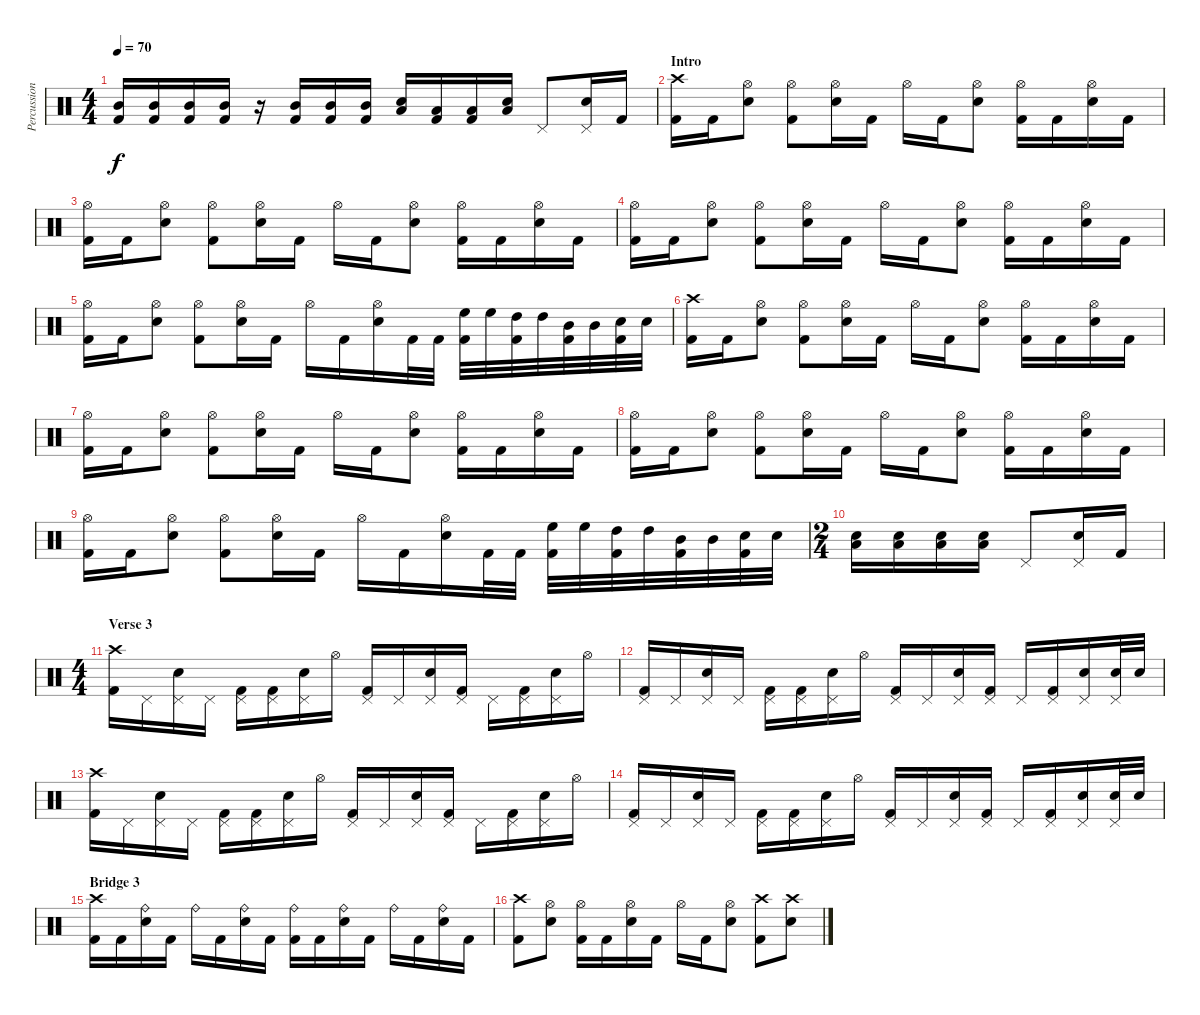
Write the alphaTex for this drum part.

\track ("Percussion" "Percussion") {instrument percussion}
\staff {score}
\articulation defaults
\ts (4 4)
\tempo 70
\clef neutral
\ks c
("Kick (hit) 2" "Mid Tom (hit)").16{dy f} ("Kick (hit) 2" "Mid Tom (hit)").16 ("Kick (hit) 2" "Mid Tom (hit)").16 ("Kick (hit) 2" "Mid Tom (hit)").16 r.16 ("Kick (hit) 2" "Mid Tom (hit)").16 ("Kick (hit) 2" "Mid Tom (hit)").16 ("Kick (hit) 2" "Mid Tom (hit)").16 ("Electric Snare (hit)" "Low Tom (hit)").16 ("Kick (hit) 2" "Low Tom (hit)").16 ("Kick (hit) 2" "Low Tom (hit)").16 ("Electric Snare (hit)" "Low Tom (hit)").16 "Pedal Hi-Hat (hit)".8 ("Electric Snare (hit)" "Pedal Hi-Hat (hit)").16 "Kick (hit) 2".16 |
\section ("" "Intro")
("Kick (hit) 2" "Crash high (hit)").16 "Kick (hit) 2".16 ("Electric Snare (hit)" "Hi-Hat (open)").8 ("Kick (hit) 2" "Hi-Hat (open)").8 ("Electric Snare (hit)" "Hi-Hat (open)").16 "Kick (hit) 2".16 "Hi-Hat (open)".16 "Kick (hit) 2".16 ("Electric Snare (hit)" "Hi-Hat (open)").8 ("Kick (hit) 2" "Hi-Hat (open)").16 "Kick (hit) 2".16 ("Electric Snare (hit)" "Hi-Hat (open)").16 "Kick (hit) 2".16 |
("Kick (hit) 2" "Hi-Hat (open)").16 "Kick (hit) 2".16 ("Electric Snare (hit)" "Hi-Hat (open)").8 ("Kick (hit) 2" "Hi-Hat (open)").8 ("Electric Snare (hit)" "Hi-Hat (open)").16 "Kick (hit) 2".16 "Hi-Hat (open)".16 "Kick (hit) 2".16 ("Electric Snare (hit)" "Hi-Hat (open)").8 ("Kick (hit) 2" "Hi-Hat (open)").16 "Kick (hit) 2".16 ("Electric Snare (hit)" "Hi-Hat (open)").16 "Kick (hit) 2".16 |
("Kick (hit) 2" "Hi-Hat (open)").16 "Kick (hit) 2".16 ("Electric Snare (hit)" "Hi-Hat (open)").8 ("Kick (hit) 2" "Hi-Hat (open)").8 ("Electric Snare (hit)" "Hi-Hat (open)").16 "Kick (hit) 2".16 "Hi-Hat (open)".16 "Kick (hit) 2".16 ("Electric Snare (hit)" "Hi-Hat (open)").8 ("Kick (hit) 2" "Hi-Hat (open)").16 "Kick (hit) 2".16 ("Electric Snare (hit)" "Hi-Hat (open)").16 "Kick (hit) 2".16 |
("Kick (hit) 2" "Hi-Hat (open)").16 "Kick (hit) 2".16 ("Electric Snare (hit)" "Hi-Hat (open)").8 ("Kick (hit) 2" "Hi-Hat (open)").8 ("Electric Snare (hit)" "Hi-Hat (open)").16 "Kick (hit) 2".16 "Hi-Hat (open)".16 "Kick (hit) 2".16 ("Electric Snare (hit)" "Hi-Hat (open)").16 "Kick (hit) 2".32 "Kick (hit) 2".32 ("High Floor Tom (hit)" "Kick (hit) 2").32 "High Floor Tom (hit)".32 ("High Tom (hit)" "Kick (hit) 2").32 "High Tom (hit)".32 ("Mid Tom (hit)" "Kick (hit) 2").32 "Mid Tom (hit)".32 ("Electric Snare (hit)" "Kick (hit) 2").32 "Electric Snare (hit)".32 |
("Kick (hit) 2" "Crash high (hit)").16 "Kick (hit) 2".16 ("Electric Snare (hit)" "Hi-Hat (open)").8 ("Kick (hit) 2" "Hi-Hat (open)").8 ("Electric Snare (hit)" "Hi-Hat (open)").16 "Kick (hit) 2".16 "Hi-Hat (open)".16 "Kick (hit) 2".16 ("Electric Snare (hit)" "Hi-Hat (open)").8 ("Kick (hit) 2" "Hi-Hat (open)").16 "Kick (hit) 2".16 ("Electric Snare (hit)" "Hi-Hat (open)").16 "Kick (hit) 2".16 |
("Kick (hit) 2" "Hi-Hat (open)").16 "Kick (hit) 2".16 ("Electric Snare (hit)" "Hi-Hat (open)").8 ("Kick (hit) 2" "Hi-Hat (open)").8 ("Electric Snare (hit)" "Hi-Hat (open)").16 "Kick (hit) 2".16 "Hi-Hat (open)".16 "Kick (hit) 2".16 ("Electric Snare (hit)" "Hi-Hat (open)").8 ("Kick (hit) 2" "Hi-Hat (open)").16 "Kick (hit) 2".16 ("Electric Snare (hit)" "Hi-Hat (open)").16 "Kick (hit) 2".16 |
("Kick (hit) 2" "Hi-Hat (open)").16 "Kick (hit) 2".16 ("Electric Snare (hit)" "Hi-Hat (open)").8 ("Kick (hit) 2" "Hi-Hat (open)").8 ("Electric Snare (hit)" "Hi-Hat (open)").16 "Kick (hit) 2".16 "Hi-Hat (open)".16 "Kick (hit) 2".16 ("Electric Snare (hit)" "Hi-Hat (open)").8 ("Kick (hit) 2" "Hi-Hat (open)").16 "Kick (hit) 2".16 ("Electric Snare (hit)" "Hi-Hat (open)").16 "Kick (hit) 2".16 |
("Kick (hit) 2" "Hi-Hat (open)").16 "Kick (hit) 2".16 ("Electric Snare (hit)" "Hi-Hat (open)").8 ("Kick (hit) 2" "Hi-Hat (open)").8 ("Electric Snare (hit)" "Hi-Hat (open)").16 "Kick (hit) 2".16 "Hi-Hat (open)".16 "Kick (hit) 2".16 ("Electric Snare (hit)" "Hi-Hat (open)").16 "Kick (hit) 2".32 "Kick (hit) 2".32 ("High Floor Tom (hit)" "Kick (hit) 2").32 "High Floor Tom (hit)".32 ("High Tom (hit)" "Kick (hit) 2").32 "High Tom (hit)".32 ("Mid Tom (hit)" "Kick (hit) 2").32 "Mid Tom (hit)".32 ("Electric Snare (hit)" "Kick (hit) 2").32 "Electric Snare (hit)".32 |
\ts (2 4)
("Electric Snare (hit)" "Low Tom (hit)").16 ("Electric Snare (hit)" "Low Tom (hit)").16 ("Electric Snare (hit)" "Low Tom (hit)").16 ("Electric Snare (hit)" "Low Tom (hit)").16 "Pedal Hi-Hat (hit)".8 ("Electric Snare (hit)" "Pedal Hi-Hat (hit)").16 "Kick (hit) 2".16 |
\ts (4 4)
\section ("" "Verse 3")
("Kick (hit) 2" "Crash high (hit)").16 "Pedal Hi-Hat (hit)".16 ("Electric Snare (hit)" "Pedal Hi-Hat (hit)").16 "Pedal Hi-Hat (hit)".16 ("Kick (hit) 2" "Pedal Hi-Hat (hit)").16 ("Kick (hit) 2" "Pedal Hi-Hat (hit)").16 ("Electric Snare (hit)" "Pedal Hi-Hat (hit)").16 "Hi-Hat (open)".16 ("Kick (hit) 2" "Pedal Hi-Hat (hit)").16 "Pedal Hi-Hat (hit)".16 ("Electric Snare (hit)" "Pedal Hi-Hat (hit)").16 ("Kick (hit) 2" "Pedal Hi-Hat (hit)").16 "Pedal Hi-Hat (hit)".16 ("Kick (hit) 2" "Pedal Hi-Hat (hit)").16 ("Electric Snare (hit)" "Pedal Hi-Hat (hit)").16 "Hi-Hat (open)".16 |
("Kick (hit) 2" "Pedal Hi-Hat (hit)").16 "Pedal Hi-Hat (hit)".16 ("Electric Snare (hit)" "Pedal Hi-Hat (hit)").16 "Pedal Hi-Hat (hit)".16 ("Kick (hit) 2" "Pedal Hi-Hat (hit)").16 ("Kick (hit) 2" "Pedal Hi-Hat (hit)").16 ("Electric Snare (hit)" "Pedal Hi-Hat (hit)").16 "Hi-Hat (open)".16 ("Kick (hit) 2" "Pedal Hi-Hat (hit)").16 "Pedal Hi-Hat (hit)".16 ("Electric Snare (hit)" "Pedal Hi-Hat (hit)").16 ("Kick (hit) 2" "Pedal Hi-Hat (hit)").16 "Pedal Hi-Hat (hit)".16 ("Kick (hit) 2" "Pedal Hi-Hat (hit)").16 ("Electric Snare (hit)" "Pedal Hi-Hat (hit)").16 ("Electric Snare (hit)" "Pedal Hi-Hat (hit)").32 "Electric Snare (hit)".32 |
("Kick (hit) 2" "Crash high (hit)").16 "Pedal Hi-Hat (hit)".16 ("Electric Snare (hit)" "Pedal Hi-Hat (hit)").16 "Pedal Hi-Hat (hit)".16 ("Kick (hit) 2" "Pedal Hi-Hat (hit)").16 ("Kick (hit) 2" "Pedal Hi-Hat (hit)").16 ("Electric Snare (hit)" "Pedal Hi-Hat (hit)").16 "Hi-Hat (open)".16 ("Kick (hit) 2" "Pedal Hi-Hat (hit)").16 "Pedal Hi-Hat (hit)".16 ("Electric Snare (hit)" "Pedal Hi-Hat (hit)").16 ("Kick (hit) 2" "Pedal Hi-Hat (hit)").16 "Pedal Hi-Hat (hit)".16 ("Kick (hit) 2" "Pedal Hi-Hat (hit)").16 ("Electric Snare (hit)" "Pedal Hi-Hat (hit)").16 "Hi-Hat (open)".16 |
("Kick (hit) 2" "Pedal Hi-Hat (hit)").16 "Pedal Hi-Hat (hit)".16 ("Electric Snare (hit)" "Pedal Hi-Hat (hit)").16 "Pedal Hi-Hat (hit)".16 ("Kick (hit) 2" "Pedal Hi-Hat (hit)").16 ("Kick (hit) 2" "Pedal Hi-Hat (hit)").16 ("Electric Snare (hit)" "Pedal Hi-Hat (hit)").16 "Hi-Hat (open)".16 ("Kick (hit) 2" "Pedal Hi-Hat (hit)").16 "Pedal Hi-Hat (hit)".16 ("Electric Snare (hit)" "Pedal Hi-Hat (hit)").16 ("Kick (hit) 2" "Pedal Hi-Hat (hit)").16 "Pedal Hi-Hat (hit)".16 ("Kick (hit) 2" "Pedal Hi-Hat (hit)").16 ("Electric Snare (hit)" "Pedal Hi-Hat (hit)").16 ("Electric Snare (hit)" "Pedal Hi-Hat (hit)").32 "Electric Snare (hit)".32 |
\section ("" "Bridge 3")
("Kick (hit) 2" "Crash high (hit)").16 "Kick (hit) 2".16 ("Electric Snare (hit)" "Ride (bell)").16 "Kick (hit) 2".16 "Ride (bell)".16 "Kick (hit) 2".16 ("Electric Snare (hit)" "Ride (bell)").16 "Kick (hit) 2".16 ("Kick (hit) 2" "Ride (bell)").16 "Kick (hit) 2".16 ("Electric Snare (hit)" "Ride (bell)").16 "Kick (hit) 2".16 "Ride (bell)".16 "Kick (hit) 2".16 ("Electric Snare (hit)" "Ride (bell)").16 "Kick (hit) 2".16 |
("Kick (hit) 2" "Crash high (hit)").8 ("Electric Snare (hit)" "Hi-Hat (open)").8 ("Kick (hit) 2" "Hi-Hat (open)").16 "Kick (hit) 2".16 ("Electric Snare (hit)" "Hi-Hat (open)").16 "Kick (hit) 2".16 "Hi-Hat (open)".16 "Kick (hit) 2".16 ("Electric Snare (hit)" "Hi-Hat (open)").8 ("Kick (hit) 2" "Crash high (hit)").8 ("Electric Snare (hit)" "Crash high (hit)").8
